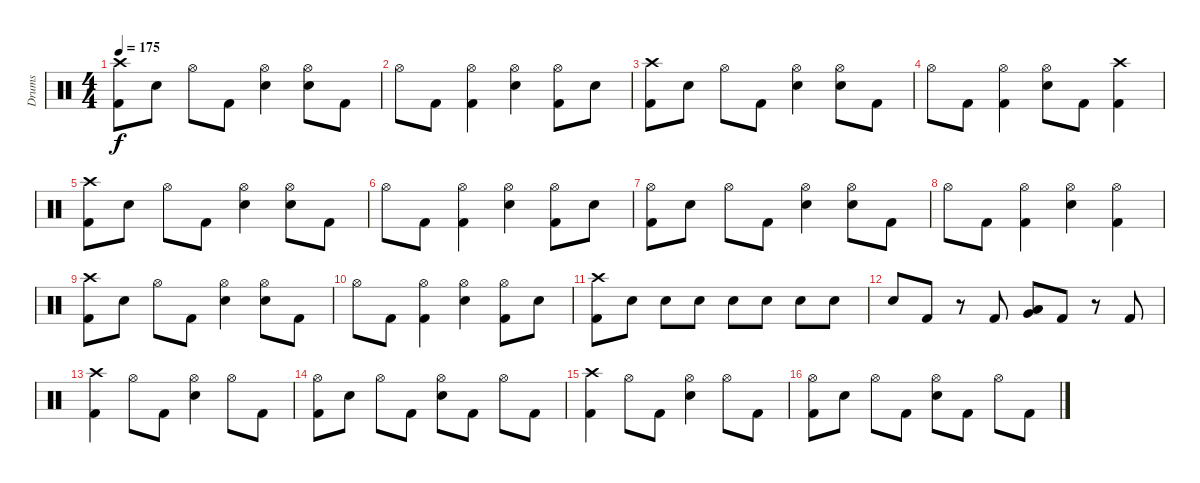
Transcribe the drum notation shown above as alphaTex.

\track ("Drums" "Drums") {instrument percussion}
\staff {score}
\articulation defaults
\ts (4 4)
\tempo 175
\clef neutral
\ks c
("Crash high (hit)" "Kick (hit) 2").8{dy f} "Electric Snare (hit)".8 "Hi-Hat (open)".8 "Kick (hit) 2".8 ("Hi-Hat (open)" "Electric Snare (hit)").4 ("Hi-Hat (open)" "Electric Snare (hit)").8 "Kick (hit) 2".8 |
"Hi-Hat (open)".8 "Kick (hit) 2".8 ("Hi-Hat (open)" "Kick (hit) 2").4 ("Hi-Hat (open)" "Electric Snare (hit)").4 ("Hi-Hat (open)" "Kick (hit) 2").8 "Electric Snare (hit)".8 |
("Crash high (hit)" "Kick (hit) 2").8 "Electric Snare (hit)".8 "Hi-Hat (open)".8 "Kick (hit) 2".8 ("Hi-Hat (open)" "Electric Snare (hit)").4 ("Hi-Hat (open)" "Electric Snare (hit)").8 "Kick (hit) 2".8 |
"Hi-Hat (open)".8 "Kick (hit) 2".8 ("Hi-Hat (open)" "Kick (hit) 2").4 ("Hi-Hat (open)" "Electric Snare (hit)").8 "Kick (hit) 2".8 ("Crash high (hit)" "Kick (hit) 2").4 |
("Crash high (hit)" "Kick (hit) 2").8 "Electric Snare (hit)".8 "Hi-Hat (open)".8 "Kick (hit) 2".8 ("Hi-Hat (open)" "Electric Snare (hit)").4 ("Hi-Hat (open)" "Electric Snare (hit)").8 "Kick (hit) 2".8 |
"Hi-Hat (open)".8 "Kick (hit) 2".8 ("Hi-Hat (open)" "Kick (hit) 2").4 ("Hi-Hat (open)" "Electric Snare (hit)").4 ("Hi-Hat (open)" "Kick (hit) 2").8 "Electric Snare (hit)".8 |
("Hi-Hat (open)" "Kick (hit) 2").8 "Electric Snare (hit)".8 "Hi-Hat (open)".8 "Kick (hit) 2".8 ("Hi-Hat (open)" "Electric Snare (hit)").4 ("Hi-Hat (open)" "Electric Snare (hit)").8 "Kick (hit) 2".8 |
"Hi-Hat (open)".8 "Kick (hit) 2".8 ("Hi-Hat (open)" "Kick (hit) 2").4 ("Hi-Hat (open)" "Electric Snare (hit)").4 ("Hi-Hat (open)" "Kick (hit) 2").4 |
("Crash high (hit)" "Kick (hit) 2").8 "Electric Snare (hit)".8 "Hi-Hat (open)".8 "Kick (hit) 2".8 ("Hi-Hat (open)" "Electric Snare (hit)").4 ("Hi-Hat (open)" "Electric Snare (hit)").8 "Kick (hit) 2".8 |
"Hi-Hat (open)".8 "Kick (hit) 2".8 ("Hi-Hat (open)" "Kick (hit) 2").4 ("Hi-Hat (open)" "Electric Snare (hit)").4 ("Hi-Hat (open)" "Kick (hit) 2").8 "Electric Snare (hit)".8 |
("Crash high (hit)" "Kick (hit) 2").8 "Electric Snare (hit)".8 "Electric Snare (hit)".8 "Electric Snare (hit)".8 "Electric Snare (hit)".8 "Electric Snare (hit)".8 "Electric Snare (hit)".8 "Electric Snare (hit)".8 |
"Electric Snare (hit)".8 "Kick (hit) 2".8 r.8 "Kick (hit) 2".8 ("Very Low Tom (hit)" "Low Floor Tom (hit)").8{bd 240} "Kick (hit) 2".8 r.8 "Kick (hit) 2".8 |
("Crash high (hit)" "Kick (hit) 2").4 "Hi-Hat (open)".8 "Kick (hit) 2".8 ("Hi-Hat (open)" "Electric Snare (hit)").4 "Hi-Hat (open)".8 "Kick (hit) 2".8 |
("Hi-Hat (open)" "Kick (hit) 2").8 "Electric Snare (hit)".8 "Hi-Hat (open)".8 "Kick (hit) 2".8 ("Hi-Hat (open)" "Electric Snare (hit)").8 "Kick (hit) 2".8 "Hi-Hat (open)".8 "Kick (hit) 2".8 |
("Crash high (hit)" "Kick (hit) 2").4 "Hi-Hat (open)".8 "Kick (hit) 2".8 ("Hi-Hat (open)" "Electric Snare (hit)").4 "Hi-Hat (open)".8 "Kick (hit) 2".8 |
("Hi-Hat (open)" "Kick (hit) 2").8 "Electric Snare (hit)".8 "Hi-Hat (open)".8 "Kick (hit) 2".8 ("Hi-Hat (open)" "Electric Snare (hit)").8 "Kick (hit) 2".8 "Hi-Hat (open)".8 "Kick (hit) 2".8
